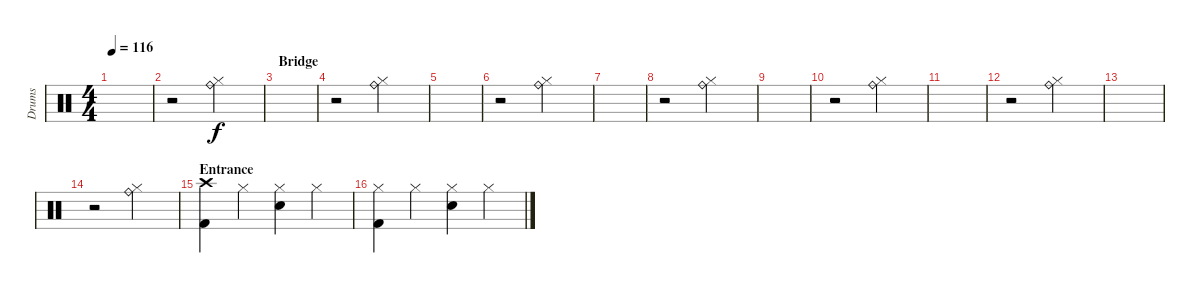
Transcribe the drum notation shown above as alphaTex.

\track ("Drums" "Drums") {instrument percussion}
\staff {score}
\articulation defaults
\ts (4 4)
\tempo 116
\clef neutral
\ks c
|
r.2 ("Ride (bell)" "Hi-Hat (closed)").2 |
\section ("" "Bridge")
|
r.2 ("Ride (bell)" "Hi-Hat (closed)").2 |
|
r.2 ("Ride (bell)" "Hi-Hat (closed)").2 |
|
r.2 ("Ride (bell)" "Hi-Hat (closed)").2 |
|
r.2 ("Ride (bell)" "Hi-Hat (closed)").2 |
|
r.2 ("Ride (bell)" "Hi-Hat (closed)").2 |
|
r.2 ("Ride (bell)" "Hi-Hat (closed)").2 |
\section ("" "Entrance")
("Crash high (hit)" "Kick (hit) 2").4 "Hi-Hat (closed)".4 ("Hi-Hat (closed)" "Snare (hit) 2").4 "Hi-Hat (closed)".4 |
("Hi-Hat (closed)" "Kick (hit) 2").4 "Hi-Hat (closed)".4 ("Hi-Hat (closed)" "Snare (hit) 2").4 "Hi-Hat (closed)".4
